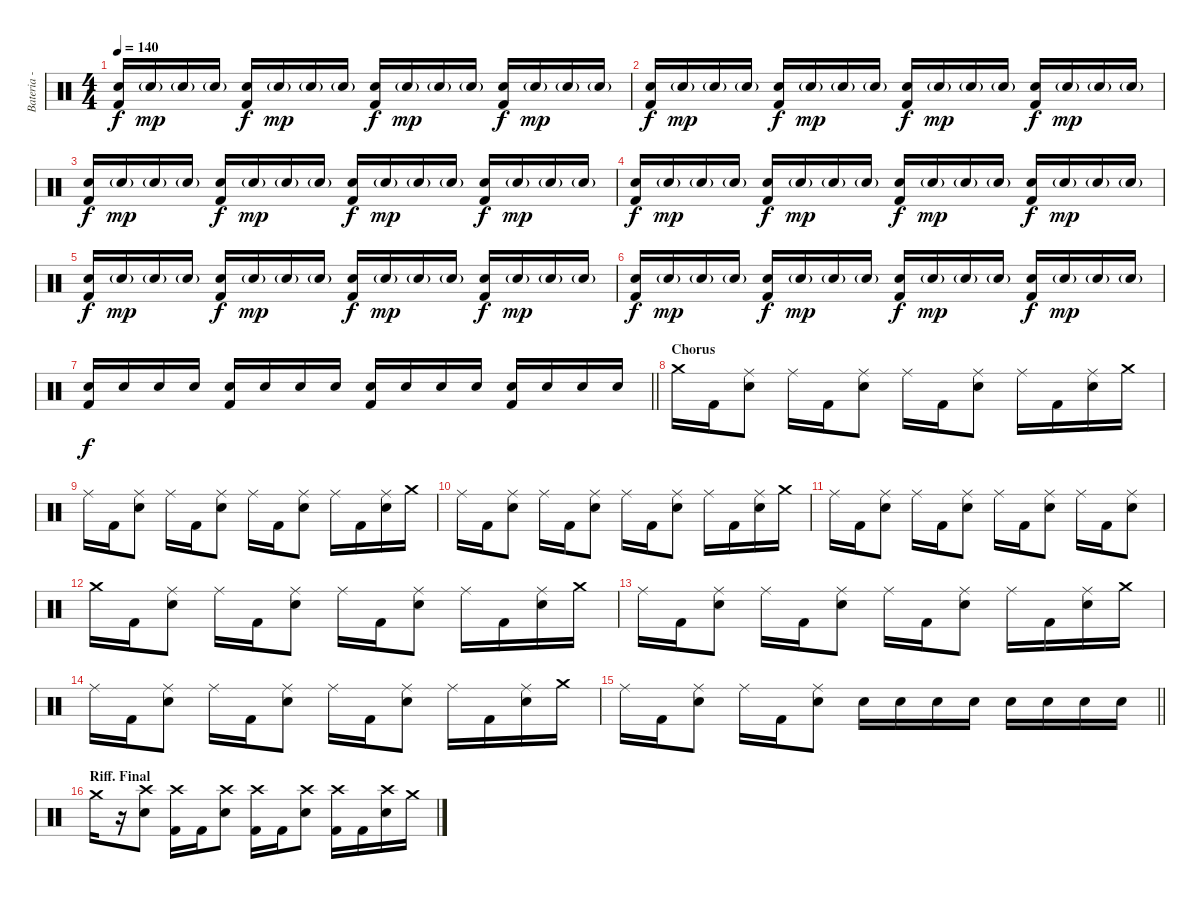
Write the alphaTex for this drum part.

\track ("Bateria - Larzon" "Bateria - ") {instrument percussion}
\staff {score}
\articulation defaults
\ts (4 4)
\tempo 140
\clef neutral
\ks c
("Electric Snare (hit)" "Kick (hit) 2").16{dy f} "Electric Snare (hit)"{g}.16{dy mp} "Electric Snare (hit)"{g}.16 "Electric Snare (hit)"{g}.16 ("Electric Snare (hit)" "Kick (hit) 2").16{dy f} "Electric Snare (hit)"{g}.16{dy mp} "Electric Snare (hit)"{g}.16 "Electric Snare (hit)"{g}.16 ("Electric Snare (hit)" "Kick (hit) 2").16{dy f} "Electric Snare (hit)"{g}.16{dy mp} "Electric Snare (hit)"{g}.16 "Electric Snare (hit)"{g}.16 ("Electric Snare (hit)" "Kick (hit) 2").16{dy f} "Electric Snare (hit)"{g}.16{dy mp} "Electric Snare (hit)"{g}.16 "Electric Snare (hit)"{g}.16 |
("Electric Snare (hit)" "Kick (hit) 2").16{dy f} "Electric Snare (hit)"{g}.16{dy mp} "Electric Snare (hit)"{g}.16 "Electric Snare (hit)"{g}.16 ("Electric Snare (hit)" "Kick (hit) 2").16{dy f} "Electric Snare (hit)"{g}.16{dy mp} "Electric Snare (hit)"{g}.16 "Electric Snare (hit)"{g}.16 ("Electric Snare (hit)" "Kick (hit) 2").16{dy f} "Electric Snare (hit)"{g}.16{dy mp} "Electric Snare (hit)"{g}.16 "Electric Snare (hit)"{g}.16 ("Electric Snare (hit)" "Kick (hit) 2").16{dy f} "Electric Snare (hit)"{g}.16{dy mp} "Electric Snare (hit)"{g}.16 "Electric Snare (hit)"{g}.16 |
("Electric Snare (hit)" "Kick (hit) 2").16{dy f} "Electric Snare (hit)"{g}.16{dy mp} "Electric Snare (hit)"{g}.16 "Electric Snare (hit)"{g}.16 ("Electric Snare (hit)" "Kick (hit) 2").16{dy f} "Electric Snare (hit)"{g}.16{dy mp} "Electric Snare (hit)"{g}.16 "Electric Snare (hit)"{g}.16 ("Electric Snare (hit)" "Kick (hit) 2").16{dy f} "Electric Snare (hit)"{g}.16{dy mp} "Electric Snare (hit)"{g}.16 "Electric Snare (hit)"{g}.16 ("Electric Snare (hit)" "Kick (hit) 2").16{dy f} "Electric Snare (hit)"{g}.16{dy mp} "Electric Snare (hit)"{g}.16 "Electric Snare (hit)"{g}.16 |
("Electric Snare (hit)" "Kick (hit) 2").16{dy f} "Electric Snare (hit)"{g}.16{dy mp} "Electric Snare (hit)"{g}.16 "Electric Snare (hit)"{g}.16 ("Electric Snare (hit)" "Kick (hit) 2").16{dy f} "Electric Snare (hit)"{g}.16{dy mp} "Electric Snare (hit)"{g}.16 "Electric Snare (hit)"{g}.16 ("Electric Snare (hit)" "Kick (hit) 2").16{dy f} "Electric Snare (hit)"{g}.16{dy mp} "Electric Snare (hit)"{g}.16 "Electric Snare (hit)"{g}.16 ("Electric Snare (hit)" "Kick (hit) 2").16{dy f} "Electric Snare (hit)"{g}.16{dy mp} "Electric Snare (hit)"{g}.16 "Electric Snare (hit)"{g}.16 |
("Electric Snare (hit)" "Kick (hit) 2").16{dy f} "Electric Snare (hit)"{g}.16{dy mp} "Electric Snare (hit)"{g}.16 "Electric Snare (hit)"{g}.16 ("Electric Snare (hit)" "Kick (hit) 2").16{dy f} "Electric Snare (hit)"{g}.16{dy mp} "Electric Snare (hit)"{g}.16 "Electric Snare (hit)"{g}.16 ("Electric Snare (hit)" "Kick (hit) 2").16{dy f} "Electric Snare (hit)"{g}.16{dy mp} "Electric Snare (hit)"{g}.16 "Electric Snare (hit)"{g}.16 ("Electric Snare (hit)" "Kick (hit) 2").16{dy f} "Electric Snare (hit)"{g}.16{dy mp} "Electric Snare (hit)"{g}.16 "Electric Snare (hit)"{g}.16 |
("Electric Snare (hit)" "Kick (hit) 2").16{dy f} "Electric Snare (hit)"{g}.16{dy mp} "Electric Snare (hit)"{g}.16 "Electric Snare (hit)"{g}.16 ("Electric Snare (hit)" "Kick (hit) 2").16{dy f} "Electric Snare (hit)"{g}.16{dy mp} "Electric Snare (hit)"{g}.16 "Electric Snare (hit)"{g}.16 ("Electric Snare (hit)" "Kick (hit) 2").16{dy f} "Electric Snare (hit)"{g}.16{dy mp} "Electric Snare (hit)"{g}.16 "Electric Snare (hit)"{g}.16 ("Electric Snare (hit)" "Kick (hit) 2").16{dy f} "Electric Snare (hit)"{g}.16{dy mp} "Electric Snare (hit)"{g}.16 "Electric Snare (hit)"{g}.16 |
\barLineRight lightlight
("Electric Snare (hit)" "Kick (hit) 2").16{dy f} "Electric Snare (hit)".16 "Electric Snare (hit)".16 "Electric Snare (hit)".16 ("Electric Snare (hit)" "Kick (hit) 2").16 "Electric Snare (hit)".16 "Electric Snare (hit)".16 "Electric Snare (hit)".16 ("Electric Snare (hit)" "Kick (hit) 2").16 "Electric Snare (hit)".16 "Electric Snare (hit)".16 "Electric Snare (hit)".16 ("Electric Snare (hit)" "Kick (hit) 2").16 "Electric Snare (hit)".16 "Electric Snare (hit)".16 "Electric Snare (hit)".16 |
\section ("" "Chorus")
"Crash medium (hit)".16 "Kick (hit) 2".16 ("Electric Snare (hit)" "Ride (middle)").8 "Ride (middle)".16 "Kick (hit) 2".16 ("Electric Snare (hit)" "Ride (middle)").8 "Ride (middle)".16 "Kick (hit) 2".16 ("Electric Snare (hit)" "Ride (middle)").8 "Ride (middle)".16 "Kick (hit) 2".16 ("Electric Snare (hit)" "Ride (middle)").16 "Crash medium (hit)".16 |
"Ride (middle)".16 "Kick (hit) 2".16 ("Electric Snare (hit)" "Ride (middle)").8 "Ride (middle)".16 "Kick (hit) 2".16 ("Electric Snare (hit)" "Ride (middle)").8 "Ride (middle)".16 "Kick (hit) 2".16 ("Electric Snare (hit)" "Ride (middle)").8 "Ride (middle)".16 "Kick (hit) 2".16 ("Electric Snare (hit)" "Ride (middle)").16 "Crash medium (hit)".16 |
"Ride (middle)".16 "Kick (hit) 2".16 ("Electric Snare (hit)" "Ride (middle)").8 "Ride (middle)".16 "Kick (hit) 2".16 ("Electric Snare (hit)" "Ride (middle)").8 "Ride (middle)".16 "Kick (hit) 2".16 ("Electric Snare (hit)" "Ride (middle)").8 "Ride (middle)".16 "Kick (hit) 2".16 ("Electric Snare (hit)" "Ride (middle)").16 "Crash medium (hit)".16 |
"Ride (middle)".16 "Kick (hit) 2".16 ("Electric Snare (hit)" "Ride (middle)").8 "Ride (middle)".16 "Kick (hit) 2".16 ("Electric Snare (hit)" "Ride (middle)").8 "Ride (middle)".16 "Kick (hit) 2".16 ("Electric Snare (hit)" "Ride (middle)").8 "Ride (middle)".16 "Kick (hit) 2".16 ("Electric Snare (hit)" "Ride (middle)").8 |
"Crash medium (hit)".16 "Kick (hit) 2".16 ("Electric Snare (hit)" "Ride (middle)").8 "Ride (middle)".16 "Kick (hit) 2".16 ("Electric Snare (hit)" "Ride (middle)").8 "Ride (middle)".16 "Kick (hit) 2".16 ("Electric Snare (hit)" "Ride (middle)").8 "Ride (middle)".16 "Kick (hit) 2".16 ("Electric Snare (hit)" "Ride (middle)").16 "Crash medium (hit)".16 |
"Ride (middle)".16 "Kick (hit) 2".16 ("Electric Snare (hit)" "Ride (middle)").8 "Ride (middle)".16 "Kick (hit) 2".16 ("Electric Snare (hit)" "Ride (middle)").8 "Ride (middle)".16 "Kick (hit) 2".16 ("Electric Snare (hit)" "Ride (middle)").8 "Ride (middle)".16 "Kick (hit) 2".16 ("Electric Snare (hit)" "Ride (middle)").16 "Crash medium (hit)".16 |
"Ride (middle)".16 "Kick (hit) 2".16 ("Electric Snare (hit)" "Ride (middle)").8 "Ride (middle)".16 "Kick (hit) 2".16 ("Electric Snare (hit)" "Ride (middle)").8 "Ride (middle)".16 "Kick (hit) 2".16 ("Electric Snare (hit)" "Ride (middle)").8 "Ride (middle)".16 "Kick (hit) 2".16 ("Electric Snare (hit)" "Ride (middle)").16 "Crash medium (hit)".16 |
\barLineRight lightlight "Ride (middle)".16 "Kick (hit) 2".16
("Electric Snare (hit)" "Ride (middle)").8 "Ride (middle)".16 "Kick (hit) 2".16 ("Electric Snare (hit)" "Ride (middle)").8 "Electric Snare (hit)".16 "Electric Snare (hit)".16 "Electric Snare (hit)".16 "Electric Snare (hit)".16 "Electric Snare (hit)".16 "Electric Snare (hit)".16 "Electric Snare (hit)".16 "Electric Snare (hit)".16 |
\section ("" "Riff. Final")
"Crash medium (hit)".16 r.16 ("Electric Snare (hit)" "Crash high (hit)").8 ("Kick (hit) 2" "Crash high (hit)").16 "Kick (hit) 2".16 ("Electric Snare (hit)" "Crash high (hit)").8 ("Kick (hit) 2" "Crash high (hit)").16 "Kick (hit) 2".16 ("Electric Snare (hit)" "Crash high (hit)").8 ("Kick (hit) 2" "Crash high (hit)").16 "Kick (hit) 2".16 ("Electric Snare (hit)" "Crash high (hit)").16 "Crash medium (hit)".16
